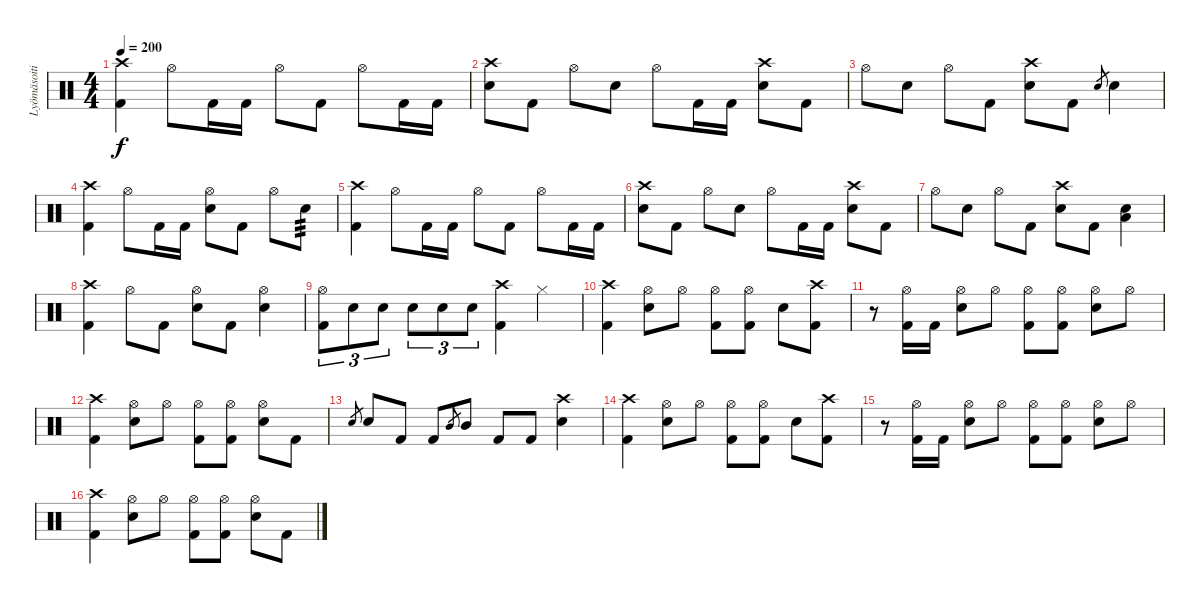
\track ("Lyömäsoitin" "Lyömäsoiti") {instrument percussion}
\staff {score}
\articulation defaults
\ts (4 4)
\tempo 200
\clef neutral
\ks c
("Crash high (hit)" "Kick (hit) 2").4{dy f} "Hi-Hat (open)".8 "Kick (hit) 2".16 "Kick (hit) 2".16 "Hi-Hat (open)".8 "Kick (hit) 2".8 "Hi-Hat (open)".8 "Kick (hit) 2".16 "Kick (hit) 2".16 |
("Crash high (hit)" "Snare (hit) 2").8 "Kick (hit) 2".8 "Hi-Hat (open)".8 "Snare (hit) 2".8 "Hi-Hat (open)".8 "Kick (hit) 2".16 "Kick (hit) 2".16 ("Crash high (hit)" "Snare (hit) 2").8 "Kick (hit) 2".8 |
"Hi-Hat (open)".8 "Snare (hit) 2".8 "Hi-Hat (open)".8 "Kick (hit) 2".8 ("Crash high (hit)" "Snare (hit) 2").8 "Kick (hit) 2".8 "Snare (hit) 2".8{gr} "Snare (hit) 2".4 |
("Crash high (hit)" "Kick (hit) 2").4 "Hi-Hat (open)".8 "Kick (hit) 2".16 "Kick (hit) 2".16 ("Hi-Hat (open)" "Snare (hit) 2").8 "Kick (hit) 2".8 "Hi-Hat (open)".8 "Snare (hit) 2".8{tp 3} |
("Crash high (hit)" "Kick (hit) 2").4 "Hi-Hat (open)".8 "Kick (hit) 2".16 "Kick (hit) 2".16 "Hi-Hat (open)".8 "Kick (hit) 2".8 "Hi-Hat (open)".8 "Kick (hit) 2".16 "Kick (hit) 2".16 |
("Crash high (hit)" "Snare (hit) 2").8 "Kick (hit) 2".8 "Hi-Hat (open)".8 "Snare (hit) 2".8 "Hi-Hat (open)".8 "Kick (hit) 2".16 "Kick (hit) 2".16 ("Crash high (hit)" "Snare (hit) 2").8 "Kick (hit) 2".8 |
"Hi-Hat (open)".8 "Snare (hit) 2".8 "Hi-Hat (open)".8 "Kick (hit) 2".8 ("Crash high (hit)" "Snare (hit) 2").8 "Kick (hit) 2".8 ("Low Tom (hit)" "Snare (hit) 2").4 |
("Crash high (hit)" "Kick (hit) 2").4 "Hi-Hat (open)".8 "Kick (hit) 2".8 ("Hi-Hat (open)" "Snare (hit) 2").8 "Kick (hit) 2".8 ("Hi-Hat (open)" "Snare (hit) 2").4 |
("Hi-Hat (open)" "Kick (hit) 2").8{tu (3 2)} "Snare (hit) 2".8{tu (3 2)} "Snare (hit) 2".8{tu (3 2)} "Snare (hit) 2".8{tu (3 2)} "Snare (hit) 2".8{tu (3 2)} "Snare (hit) 2".8{tu (3 2)} ("Crash high (hit)" "Kick (hit) 2").4 "Hi-Hat (closed)".4 |
("Crash high (hit)" "Kick (hit) 2").4 ("Hi-Hat (open)" "Snare (hit) 2").8 "Hi-Hat (open)".8 ("Hi-Hat (open)" "Kick (hit) 2").8 ("Hi-Hat (open)" "Kick (hit) 2").8 "Snare (hit) 2".8 ("Crash high (hit)" "Kick (hit) 2").8 |
r.8 ("Hi-Hat (open)" "Kick (hit) 2").16 "Kick (hit) 2".16 ("Hi-Hat (open)" "Snare (hit) 2").8 "Hi-Hat (open)".8 ("Hi-Hat (open)" "Kick (hit) 2").8 ("Hi-Hat (open)" "Kick (hit) 2").8 ("Hi-Hat (open)" "Snare (hit) 2").8 "Hi-Hat (open)".8 |
("Crash high (hit)" "Kick (hit) 2").4 ("Hi-Hat (open)" "Snare (hit) 2").8 "Hi-Hat (open)".8 ("Hi-Hat (open)" "Kick (hit) 2").8 ("Hi-Hat (open)" "Kick (hit) 2").8 ("Hi-Hat (open)" "Snare (hit) 2").8 "Kick (hit) 2".8 |
"Snare (hit) 2".8{gr} "Snare (hit) 2".8 "Kick (hit) 2".8 "Kick (hit) 2".8 "Mid Tom (hit)".8{gr} "Mid Tom (hit)".8 "Kick (hit) 2".8 "Kick (hit) 2".8 ("Crash high (hit)" "Snare (hit) 2").4 |
("Crash high (hit)" "Kick (hit) 2").4 ("Hi-Hat (open)" "Snare (hit) 2").8 "Hi-Hat (open)".8 ("Hi-Hat (open)" "Kick (hit) 2").8 ("Hi-Hat (open)" "Kick (hit) 2").8 "Snare (hit) 2".8 ("Crash high (hit)" "Kick (hit) 2").8 |
r.8 ("Hi-Hat (open)" "Kick (hit) 2").16 "Kick (hit) 2".16 ("Hi-Hat (open)" "Snare (hit) 2").8 "Hi-Hat (open)".8 ("Hi-Hat (open)" "Kick (hit) 2").8 ("Hi-Hat (open)" "Kick (hit) 2").8 ("Hi-Hat (open)" "Snare (hit) 2").8 "Hi-Hat (open)".8 |
("Crash high (hit)" "Kick (hit) 2").4 ("Hi-Hat (open)" "Snare (hit) 2").8 "Hi-Hat (open)".8 ("Hi-Hat (open)" "Kick (hit) 2").8 ("Hi-Hat (open)" "Kick (hit) 2").8 ("Hi-Hat (open)" "Snare (hit) 2").8 "Kick (hit) 2".8
